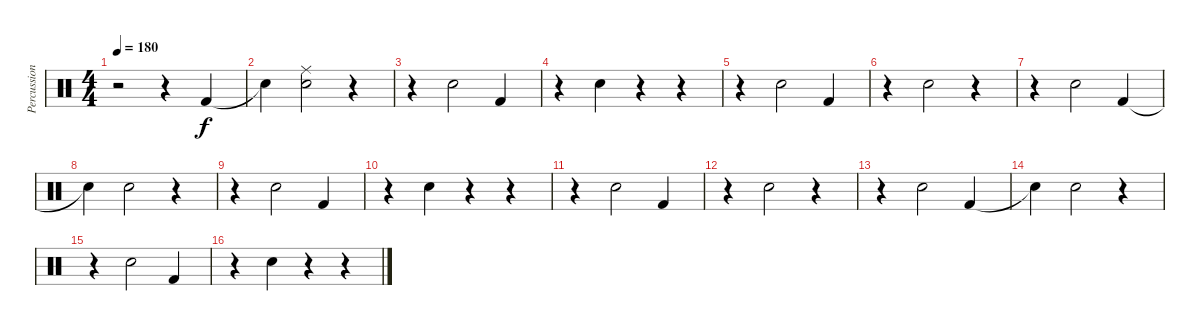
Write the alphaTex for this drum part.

\track ("Percussion" "Percussion") {instrument percussion}
\staff {score}
\articulation defaults
\ts (4 4)
\tempo 180
\clef neutral
\ks c
r.2{dy f} r.4 "Kick (hit) 2".4 |
"Snare (hit)"{t}.4 ("Electric Snare (hit)" "Ride (middle)").2 r.4 |
r.4 "Electric Snare (hit)".2 "Kick (hit) 2".4 |
r.4 "Electric Snare (hit)".4 r.4 r.4 |
r.4 "Electric Snare (hit)".2 "Kick (hit) 2".4 |
r.4 "Electric Snare (hit)".2 r.4 |
r.4 "Electric Snare (hit)".2 "Kick (hit) 2".4 |
"Snare (hit)"{t}.4 "Electric Snare (hit)".2 r.4 |
r.4 "Electric Snare (hit)".2 "Kick (hit) 2".4 |
r.4 "Electric Snare (hit)".4 r.4 r.4 |
r.4 "Electric Snare (hit)".2 "Kick (hit) 2".4 |
r.4 "Electric Snare (hit)".2 r.4 |
r.4 "Electric Snare (hit)".2 "Kick (hit) 2".4 |
"Snare (hit)"{t}.4 "Electric Snare (hit)".2 r.4 |
r.4 "Electric Snare (hit)".2 "Kick (hit) 2".4 |
r.4 "Electric Snare (hit)".4 r.4 r.4
